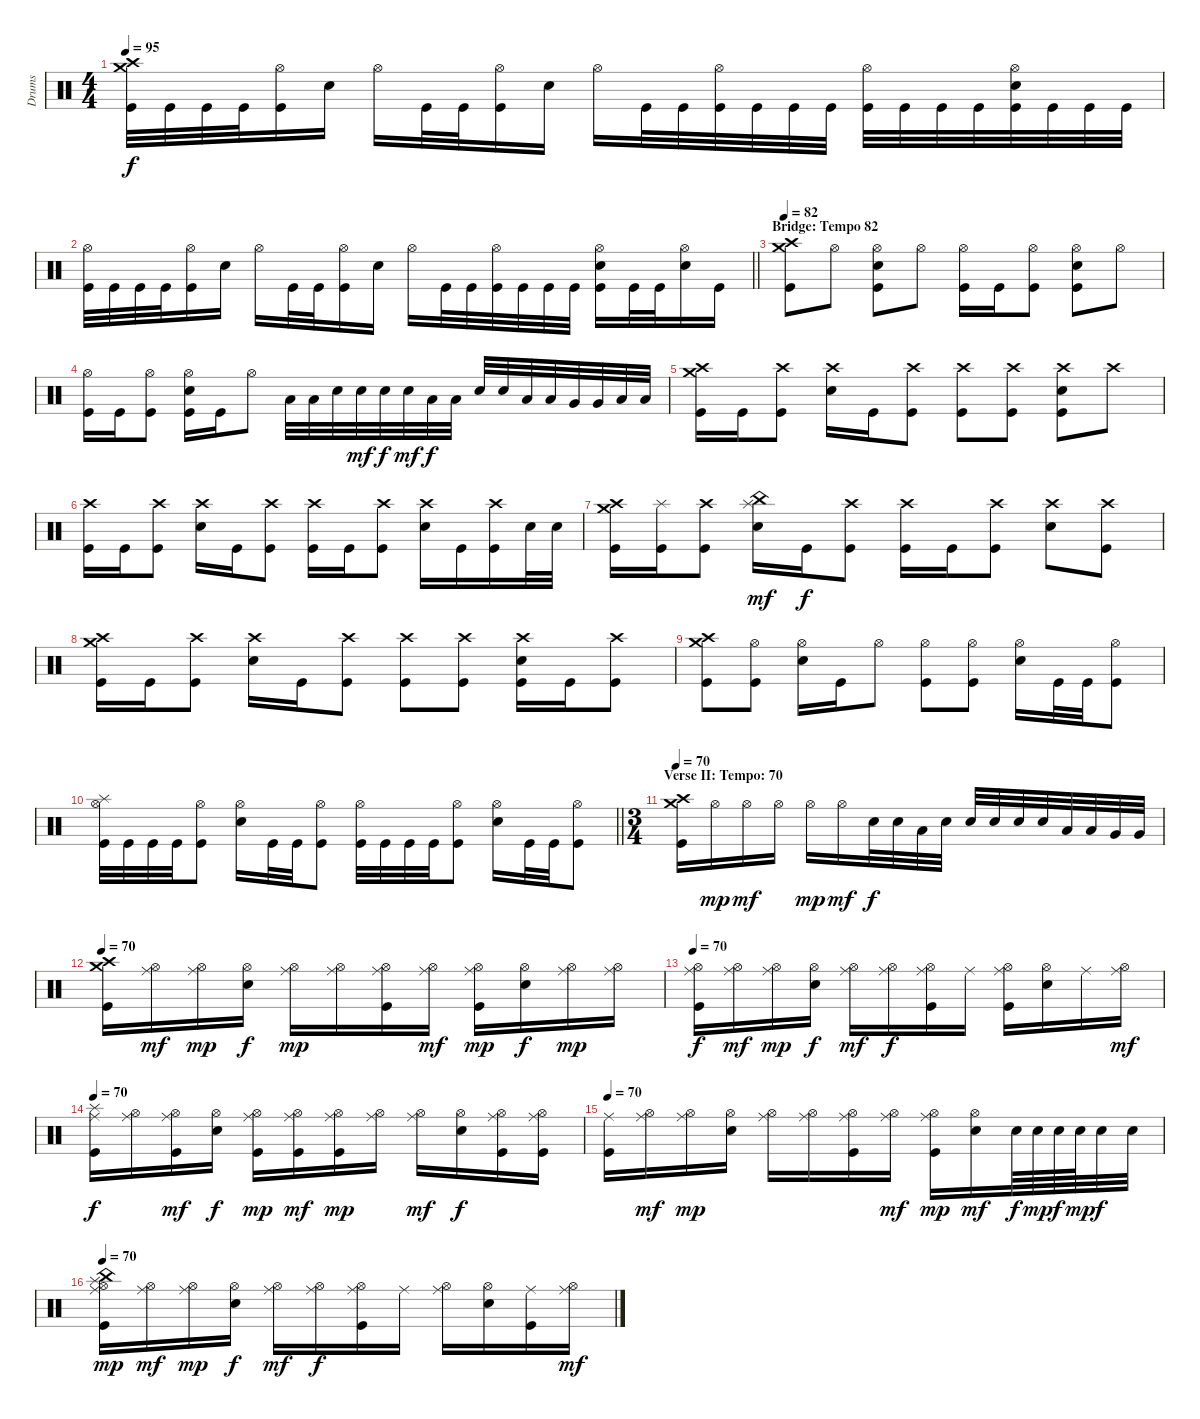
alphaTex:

\track ("Drums" "Drums") {instrument percussion}
\staff {score}
\articulation defaults
\ts (4 4)
\tempo 95
\clef neutral
\ks c
("Crash medium (hit)" "Crash high (hit)" "Kick (hit)").32{dy f} "Kick (hit)".32 "Kick (hit)".32 "Kick (hit)".32 ("Hi-Hat (open)" "Kick (hit)").16 "Electric Snare (hit)".16 "Hi-Hat (open)".16 "Kick (hit)".32 "Kick (hit)".32 ("Hi-Hat (open)" "Kick (hit)").16 "Electric Snare (hit)".16 "Hi-Hat (open)".16 "Kick (hit)".32 "Kick (hit)".32 ("Hi-Hat (open)" "Kick (hit)").32 "Kick (hit)".32 "Kick (hit)".32 "Kick (hit)".32 ("Hi-Hat (open)" "Kick (hit)").32 "Kick (hit)".32 "Kick (hit)".32 "Kick (hit)".32 ("Hi-Hat (open)" "Electric Snare (hit)" "Kick (hit)").32 "Kick (hit)".32 "Kick (hit)".32 "Kick (hit)".32 |
\barLineRight lightlight
("Hi-Hat (open)" "Kick (hit)").32 "Kick (hit)".32 "Kick (hit)".32 "Kick (hit)".32 ("Hi-Hat (open)" "Kick (hit)").16 "Electric Snare (hit)".16 "Hi-Hat (open)".16 "Kick (hit)".32 "Kick (hit)".32 ("Hi-Hat (open)" "Kick (hit)").16 "Electric Snare (hit)".16 "Hi-Hat (open)".16 "Kick (hit)".32 "Kick (hit)".32 ("Hi-Hat (open)" "Kick (hit)").32 "Kick (hit)".32 "Kick (hit)".32 "Kick (hit)".32 ("Hi-Hat (open)" "Electric Snare (hit)" "Kick (hit)").16 "Kick (hit)".32 "Kick (hit)".32 ("Hi-Hat (open)" "Electric Snare (hit)").16 "Kick (hit)".16 |
\section ("" "Bridge: Tempo 82")
\tempo 82
("Crash medium (hit)" "Crash high (hit)" "Kick (hit)").8 "Hi-Hat (open)".8 ("Hi-Hat (open)" "Electric Snare (hit)" "Kick (hit)").8 "Hi-Hat (open)".8 ("Hi-Hat (open)" "Kick (hit)").16 "Kick (hit)".16 ("Hi-Hat (open)" "Kick (hit)").8 ("Hi-Hat (open)" "Electric Snare (hit)" "Kick (hit)").8 "Hi-Hat (open)".8 |
("Hi-Hat (open)" "Kick (hit)").16 "Kick (hit)".16 ("Hi-Hat (open)" "Kick (hit)").8 ("Hi-Hat (open)" "Electric Snare (hit)" "Kick (hit)").16 "Kick (hit)".16 "Hi-Hat (open)".8 "Low Tom (hit)".32 "Low Tom (hit)".32 "Electric Snare (hit)".32 "Electric Snare (hit)".32{dy mf} "Electric Snare (hit)".32{dy f} "Electric Snare (hit)".32{dy mf} "Low Tom (hit)".32{dy f} "Low Tom (hit)".32 "Electric Snare (hit)".32 "Electric Snare (hit)".32 "Low Tom (hit)".32 "Low Tom (hit)".32 "Very Low Tom (hit)".32 "Very Low Tom (hit)".32 "Low Floor Tom (hit)".32 "Low Floor Tom (hit)".32 |
("Crash medium (hit)" "Crash high (hit)" "Kick (hit)").16 "Kick (hit)".16 ("Crash high (hit)" "Kick (hit)").8 ("Crash high (hit)" "Electric Snare (hit)").16 "Kick (hit)".16 ("Crash high (hit)" "Kick (hit)").8 ("Crash high (hit)" "Kick (hit)").8 ("Crash high (hit)" "Kick (hit)").8 ("Crash high (hit)" "Electric Snare (hit)" "Kick (hit)").8 "Crash high (hit)".8 |
("Crash high (hit)" "Kick (hit)").16 "Kick (hit)".16 ("Crash high (hit)" "Kick (hit)").8 ("Crash high (hit)" "Electric Snare (hit)").16 "Kick (hit)".16 ("Crash high (hit)" "Kick (hit)").8 ("Crash high (hit)" "Kick (hit)").16 "Kick (hit)".16 ("Crash high (hit)" "Kick (hit)").8 ("Crash high (hit)" "Electric Snare (hit)").16 "Kick (hit)".16 ("Crash high (hit)" "Kick (hit)").16 "Electric Snare (hit)".32 "Electric Snare (hit)".32 |
("Crash medium (hit)" "Crash high (hit)" "Kick (hit)").16 ("Splash (hit)" "Kick (hit)").16 ("Crash high (hit)" "Kick (hit)").8 ("China (hit)" "Splash (hit)" "Electric Snare (hit)").16{dy mf} "Kick (hit)".16{dy f} ("Crash high (hit)" "Kick (hit)").8 ("Crash high (hit)" "Kick (hit)").16 "Kick (hit)".16 ("Crash high (hit)" "Kick (hit)").8 ("Crash high (hit)" "Electric Snare (hit)").8 ("Crash high (hit)" "Kick (hit)").8 |
("Crash medium (hit)" "Crash high (hit)" "Kick (hit)").16 "Kick (hit)".16 ("Crash high (hit)" "Kick (hit)").8 ("Crash high (hit)" "Electric Snare (hit)").16 "Kick (hit)".16 ("Crash high (hit)" "Kick (hit)").8 ("Crash high (hit)" "Kick (hit)").8 ("Crash high (hit)" "Kick (hit)").8 ("Crash high (hit)" "Electric Snare (hit)" "Kick (hit)").16 "Kick (hit)".16 ("Crash high (hit)" "Kick (hit)").8 |
("Crash medium (hit)" "Crash high (hit)" "Kick (hit)").8 ("Hi-Hat (open)" "Kick (hit)").8 ("Hi-Hat (open)" "Electric Snare (hit)").16 "Kick (hit)".16 "Hi-Hat (open)".8 ("Hi-Hat (open)" "Kick (hit)").8 ("Hi-Hat (open)" "Kick (hit)").8 ("Hi-Hat (open)" "Electric Snare (hit)").16 "Kick (hit)".32 "Kick (hit)".32 ("Hi-Hat (open)" "Kick (hit)").8 |
\barLineRight lightlight
("Splash (hit)" "Hi-Hat (open)" "Kick (hit)").32 "Kick (hit)".32 "Kick (hit)".32 "Kick (hit)".32 ("Hi-Hat (open)" "Kick (hit)").8 ("Hi-Hat (open)" "Electric Snare (hit)").16 "Kick (hit)".32 "Kick (hit)".32 ("Hi-Hat (open)" "Kick (hit)").8 ("Hi-Hat (open)" "Kick (hit)").32 "Kick (hit)".32 "Kick (hit)".32 "Kick (hit)".32 ("Hi-Hat (open)" "Kick (hit)").8 ("Hi-Hat (open)" "Electric Snare (hit)").16 "Kick (hit)".32 "Kick (hit)".32 ("Hi-Hat (open)" "Kick (hit)").8 |
\ts (3 4)
\section ("" "Verse II: Tempo: 70")
\tempo 70
("Crash medium (hit)" "Crash high (hit)" "Kick (hit)").16 "Hi-Hat (open)".16{dy mp} "Hi-Hat (open)".16{dy mf} "Hi-Hat (open)".16 "Hi-Hat (open)".16{dy mp} "Hi-Hat (open)".16{dy mf} "Electric Snare (hit)".32{dy f} "Electric Snare (hit)".32 "Low Tom (hit)".32 "Electric Snare (hit)".32 "Electric Snare (hit)".32 "Electric Snare (hit)".32 "Electric Snare (hit)".32 "Electric Snare (hit)".32 "Low Tom (hit)".32 "Low Tom (hit)".32 "Very Low Tom (hit)".32 "Very Low Tom (hit)".32 |
\tempo 70
("Crash medium (hit)" "Crash high (hit)" "Kick (hit)").16 ("Ride (middle)" "Hi-Hat (open)").16{dy mf} ("Ride (middle)" "Hi-Hat (open)").16{dy mp} ("Hi-Hat (open)" "Electric Snare (hit)").16{dy f} ("Ride (middle)" "Hi-Hat (open)").16{dy mp} ("Ride (middle)" "Hi-Hat (open)").16 ("Ride (middle)" "Hi-Hat (open)" "Kick (hit)").16 ("Ride (middle)" "Hi-Hat (open)").16{dy mf} ("Ride (middle)" "Hi-Hat (open)" "Kick (hit)").16{dy mp} ("Hi-Hat (open)" "Electric Snare (hit)").16{dy f} ("Ride (middle)" "Hi-Hat (open)").16{dy mp} ("Ride (middle)" "Hi-Hat (open)").16 |
\tempo 70
("Ride (middle)" "Hi-Hat (open)" "Kick (hit)").16{dy f} ("Ride (middle)" "Hi-Hat (open)").16{dy mf} ("Ride (middle)" "Hi-Hat (open)").16{dy mp} ("Hi-Hat (open)" "Electric Snare (hit)").16{dy f} ("Ride (middle)" "Hi-Hat (open)").16{dy mf} ("Ride (middle)" "Hi-Hat (open)").16{dy f} ("Ride (middle)" "Hi-Hat (open)" "Kick (hit)").16 "Ride (middle)".16 ("Ride (middle)" "Hi-Hat (open)" "Kick (hit)").16 ("Hi-Hat (open)" "Electric Snare (hit)").16 "Ride (middle)".16 ("Ride (middle)" "Hi-Hat (open)").16{dy mf} |
\tempo 70
("Splash (hit)" "Ride (middle)" "Kick (hit)").16{dy f} ("Ride (middle)" "Hi-Hat (open)").16 ("Ride (middle)" "Hi-Hat (open)" "Kick (hit)").16{dy mf} ("Hi-Hat (open)" "Electric Snare (hit)").16{dy f} ("Ride (middle)" "Hi-Hat (open)" "Kick (hit)").16{dy mp} ("Ride (middle)" "Hi-Hat (open)" "Kick (hit)").16{dy mf} ("Ride (middle)" "Hi-Hat (open)" "Kick (hit)").16{dy mp} ("Ride (middle)" "Hi-Hat (open)").16 ("Ride (middle)" "Hi-Hat (open)").16{dy mf} ("Hi-Hat (open)" "Electric Snare (hit)").16{dy f} ("Ride (middle)" "Hi-Hat (open)" "Kick (hit)").16 ("Ride (middle)" "Hi-Hat (open)" "Kick (hit)").16 |
\tempo 70
("Ride (middle)" "Kick (hit)").16 ("Ride (middle)" "Hi-Hat (open)").16{dy mf} ("Ride (middle)" "Hi-Hat (open)").16{dy mp} ("Hi-Hat (open)" "Electric Snare (hit)").16 ("Ride (middle)" "Hi-Hat (open)").16 ("Ride (middle)" "Hi-Hat (open)").16 ("Ride (middle)" "Hi-Hat (open)" "Kick (hit)").16 ("Ride (middle)" "Hi-Hat (open)").16{dy mf} ("Ride (middle)" "Hi-Hat (open)" "Kick (hit)").16{dy mp} ("Hi-Hat (open)" "Electric Snare (hit)").16{dy mf} "Electric Snare (hit)".64{dy f} "Electric Snare (hit)".64{dy mp} "Electric Snare (hit)".64{dy f} "Electric Snare (hit)".64{dy mp} "Electric Snare (hit)".32{dy f} "Electric Snare (hit)".32 |
\tempo 70
("Splash (hit)" "China (hit)" "Ride (middle)" "Hi-Hat (open)" "Kick (hit)").16{dy mp} ("Ride (middle)" "Hi-Hat (open)").16{dy mf} ("Ride (middle)" "Hi-Hat (open)").16{dy mp} ("Hi-Hat (open)" "Electric Snare (hit)").16{dy f} ("Ride (middle)" "Hi-Hat (open)").16{dy mf} ("Ride (middle)" "Hi-Hat (open)").16{dy f} ("Ride (middle)" "Hi-Hat (open)" "Kick (hit)").16 "Ride (middle)".16 ("Ride (middle)" "Hi-Hat (open)").16 ("Hi-Hat (open)" "Electric Snare (hit)").16 ("Ride (middle)" "Kick (hit)").16 ("Ride (middle)" "Hi-Hat (open)").16{dy mf}
